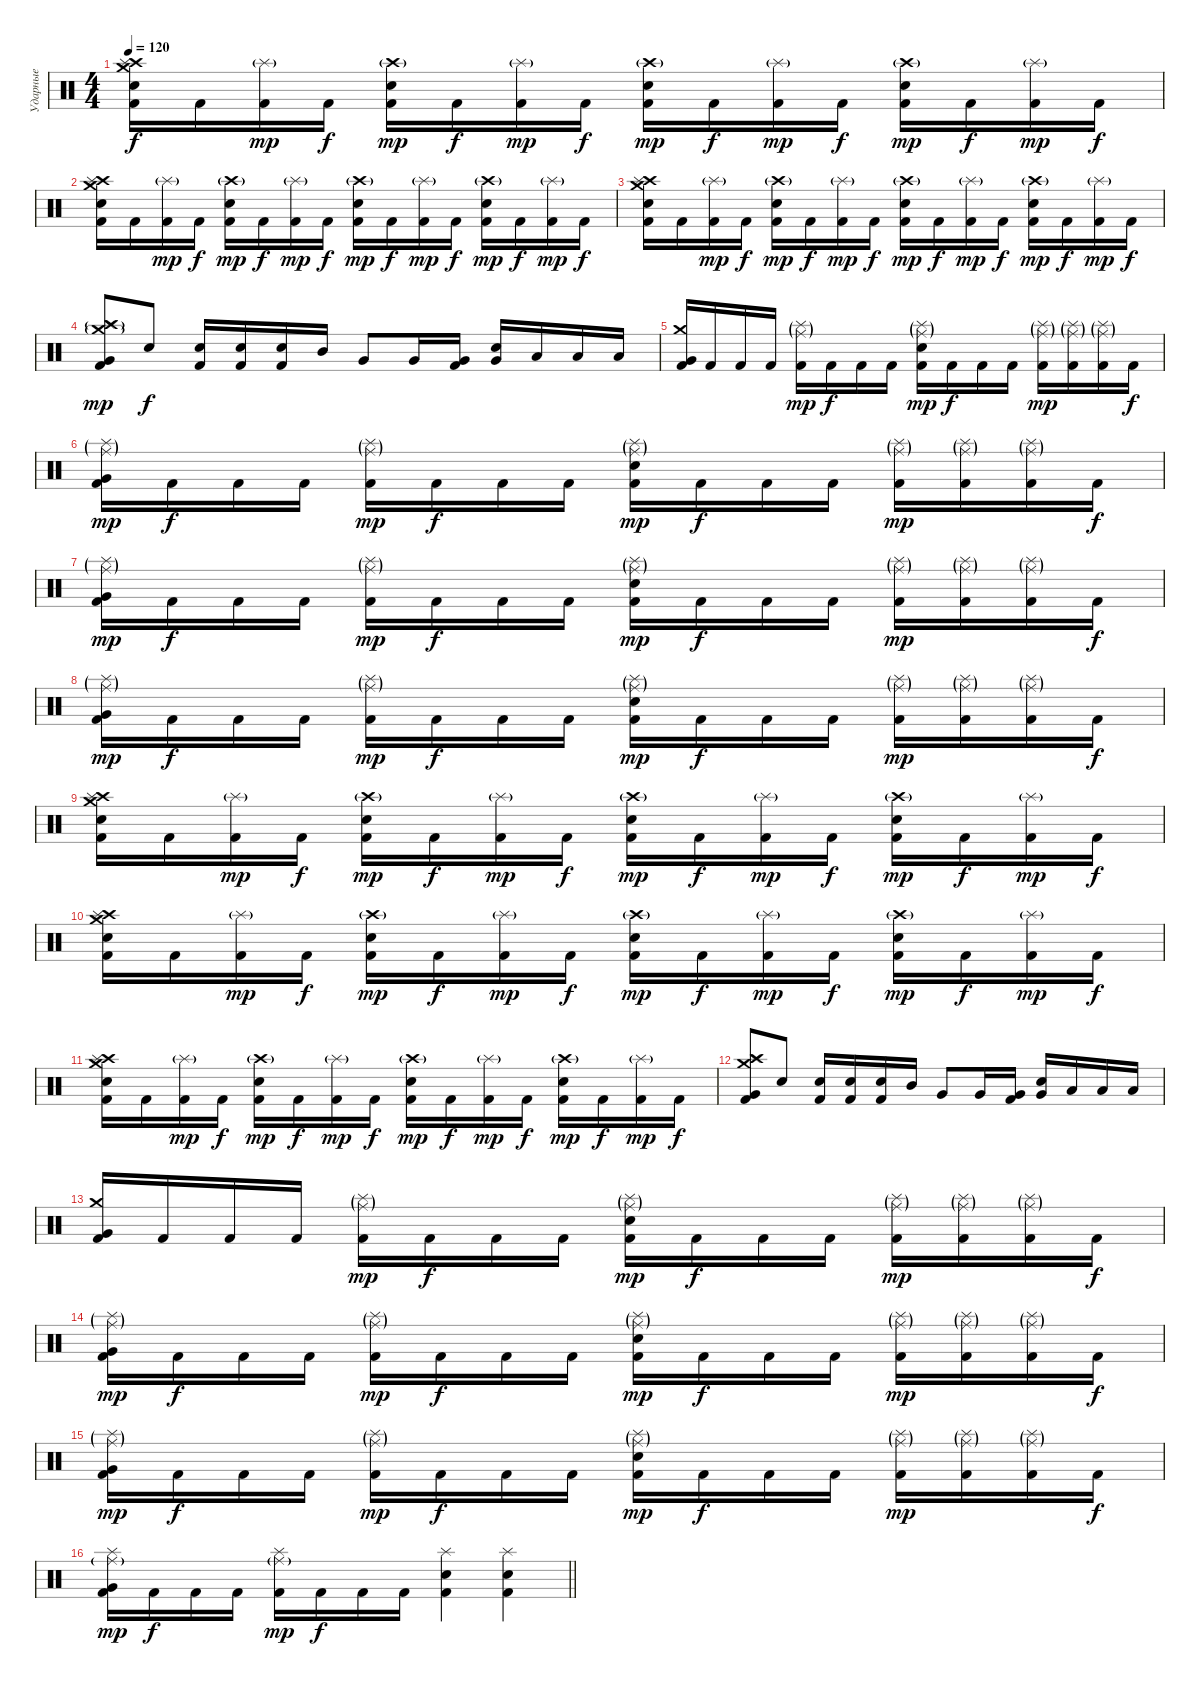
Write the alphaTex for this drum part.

\track ("Ударные" "Ударные") {instrument percussion bank 2}
\staff {score}
\articulation defaults
\ts (4 4)
\tempo 120
\clef neutral
\ks c
("Kick (hit) 2" "Snare (hit) 2" "Crash medium (hit)" "Crash high (hit)" "Splash (hit)").16{dy f} "Kick (hit) 2".16 ("Kick (hit) 2" "Splash (hit)"{g}).16{dy mp} "Kick (hit) 2".16{dy f} ("Kick (hit) 2" "Snare (hit) 2" "Crash high (hit)"{g}).16{dy mp} "Kick (hit) 2".16{dy f} ("Kick (hit) 2" "Splash (hit)"{g}).16{dy mp} "Kick (hit) 2".16{dy f} ("Kick (hit) 2" "Snare (hit) 2" "Crash high (hit)"{g}).16{dy mp} "Kick (hit) 2".16{dy f} ("Kick (hit) 2" "Splash (hit)"{g}).16{dy mp} "Kick (hit) 2".16{dy f} ("Kick (hit) 2" "Snare (hit) 2" "Crash high (hit)"{g}).16{dy mp} "Kick (hit) 2".16{dy f} ("Kick (hit) 2" "Splash (hit)"{g}).16{dy mp} "Kick (hit) 2".16{dy f} |
("Kick (hit) 2" "Snare (hit) 2" "Crash medium (hit)" "Crash high (hit)" "Splash (hit)").16 "Kick (hit) 2".16 ("Kick (hit) 2" "Splash (hit)"{g}).16{dy mp} "Kick (hit) 2".16{dy f} ("Kick (hit) 2" "Snare (hit) 2" "Crash high (hit)"{g}).16{dy mp} "Kick (hit) 2".16{dy f} ("Kick (hit) 2" "Splash (hit)"{g}).16{dy mp} "Kick (hit) 2".16{dy f} ("Kick (hit) 2" "Snare (hit) 2" "Crash high (hit)"{g}).16{dy mp} "Kick (hit) 2".16{dy f} ("Kick (hit) 2" "Splash (hit)"{g}).16{dy mp} "Kick (hit) 2".16{dy f} ("Kick (hit) 2" "Snare (hit) 2" "Crash high (hit)"{g}).16{dy mp} "Kick (hit) 2".16{dy f} ("Kick (hit) 2" "Splash (hit)"{g}).16{dy mp} "Kick (hit) 2".16{dy f} |
("Kick (hit) 2" "Snare (hit) 2" "Crash medium (hit)" "Crash high (hit)" "Splash (hit)").16 "Kick (hit) 2".16 ("Kick (hit) 2" "Splash (hit)"{g}).16{dy mp} "Kick (hit) 2".16{dy f} ("Kick (hit) 2" "Snare (hit) 2" "Crash high (hit)"{g}).16{dy mp} "Kick (hit) 2".16{dy f} ("Kick (hit) 2" "Splash (hit)"{g}).16{dy mp} "Kick (hit) 2".16{dy f} ("Kick (hit) 2" "Snare (hit) 2" "Crash high (hit)"{g}).16{dy mp} "Kick (hit) 2".16{dy f} ("Kick (hit) 2" "Splash (hit)"{g}).16{dy mp} "Kick (hit) 2".16{dy f} ("Kick (hit) 2" "Snare (hit) 2" "Crash high (hit)"{g}).16{dy mp} "Kick (hit) 2".16{dy f} ("Kick (hit) 2" "Splash (hit)"{g}).16{dy mp} "Kick (hit) 2".16{dy f} |
("Kick (hit) 2" "Very Low Tom (hit)" "Crash high (hit)"{g} "Crash medium (hit)"{g} "Splash (hit)").8{dy mp} "Snare (hit) 2".8{dy f} ("Kick (hit) 2" "Snare (hit) 2").16 ("Kick (hit) 2" "Snare (hit) 2").16 ("Kick (hit) 2" "Snare (hit) 2").16 "Mid Tom (hit)".16 "Very Low Tom (hit)".8 "Very Low Tom (hit)".16 ("Kick (hit) 2" "Very Low Tom (hit)").16 ("Snare (hit)" "Very Low Tom (hit)").16 "Low Tom (hit)".16 "Low Tom (hit)".16 "Low Tom (hit)".16 |
("Kick (hit) 2" "Very Low Tom (hit)" "Crash medium (hit)").16 "Kick (hit) 2".16 "Kick (hit) 2".16 "Kick (hit) 2".16 ("Kick (hit) 2" "Ride (middle)"{g} "Splash (hit)"{g}).16{dy mp} "Kick (hit) 2".16{dy f} "Kick (hit) 2".16 "Kick (hit) 2".16 ("Kick (hit) 2" "Snare (hit) 2" "Ride (middle)"{g} "Splash (hit)"{g}).16{dy mp} "Kick (hit) 2".16{dy f} "Kick (hit) 2".16 "Kick (hit) 2".16 ("Kick (hit) 2" "Ride (middle)"{g} "Splash (hit)"{g}).16{dy mp} ("Kick (hit) 2" "Ride (middle)"{g} "Splash (hit)"{g}).16 ("Kick (hit) 2" "Ride (middle)"{g} "Splash (hit)"{g}).16 "Kick (hit) 2".16{dy f} |
("Kick (hit) 2" "Very Low Tom (hit)" "Ride (middle)"{g} "Splash (hit)"{g}).16{dy mp} "Kick (hit) 2".16{dy f} "Kick (hit) 2".16 "Kick (hit) 2".16 ("Kick (hit) 2" "Ride (middle)"{g} "Splash (hit)"{g}).16{dy mp} "Kick (hit) 2".16{dy f} "Kick (hit) 2".16 "Kick (hit) 2".16 ("Kick (hit) 2" "Snare (hit) 2" "Ride (middle)"{g} "Splash (hit)"{g}).16{dy mp} "Kick (hit) 2".16{dy f} "Kick (hit) 2".16 "Kick (hit) 2".16 ("Kick (hit) 2" "Ride (middle)"{g} "Splash (hit)"{g}).16{dy mp} ("Kick (hit) 2" "Ride (middle)"{g} "Splash (hit)"{g}).16 ("Kick (hit) 2" "Ride (middle)"{g} "Splash (hit)"{g}).16 "Kick (hit) 2".16{dy f} |
("Kick (hit) 2" "Very Low Tom (hit)" "Ride (middle)"{g} "Splash (hit)"{g}).16{dy mp} "Kick (hit) 2".16{dy f} "Kick (hit) 2".16 "Kick (hit) 2".16 ("Kick (hit) 2" "Ride (middle)"{g} "Splash (hit)"{g}).16{dy mp} "Kick (hit) 2".16{dy f} "Kick (hit) 2".16 "Kick (hit) 2".16 ("Kick (hit) 2" "Snare (hit) 2" "Ride (middle)"{g} "Splash (hit)"{g}).16{dy mp} "Kick (hit) 2".16{dy f} "Kick (hit) 2".16 "Kick (hit) 2".16 ("Kick (hit) 2" "Ride (middle)"{g} "Splash (hit)"{g}).16{dy mp} ("Kick (hit) 2" "Ride (middle)"{g} "Splash (hit)"{g}).16 ("Kick (hit) 2" "Ride (middle)"{g} "Splash (hit)"{g}).16 "Kick (hit) 2".16{dy f} |
("Kick (hit) 2" "Very Low Tom (hit)" "Ride (middle)"{g} "Splash (hit)"{g}).16{dy mp} "Kick (hit) 2".16{dy f} "Kick (hit) 2".16 "Kick (hit) 2".16 ("Kick (hit) 2" "Ride (middle)"{g} "Splash (hit)"{g}).16{dy mp} "Kick (hit) 2".16{dy f} "Kick (hit) 2".16 "Kick (hit) 2".16 ("Kick (hit) 2" "Snare (hit) 2" "Ride (middle)"{g} "Splash (hit)"{g}).16{dy mp} "Kick (hit) 2".16{dy f} "Kick (hit) 2".16 "Kick (hit) 2".16 ("Kick (hit) 2" "Ride (middle)"{g} "Splash (hit)"{g}).16{dy mp} ("Kick (hit) 2" "Ride (middle)"{g} "Splash (hit)"{g}).16 ("Kick (hit) 2" "Ride (middle)"{g} "Splash (hit)"{g}).16 "Kick (hit) 2".16{dy f} |
("Kick (hit) 2" "Snare (hit) 2" "Crash medium (hit)" "Crash high (hit)" "Splash (hit)").16 "Kick (hit) 2".16 ("Kick (hit) 2" "Splash (hit)"{g}).16{dy mp} "Kick (hit) 2".16{dy f} ("Kick (hit) 2" "Snare (hit) 2" "Crash high (hit)"{g}).16{dy mp} "Kick (hit) 2".16{dy f} ("Kick (hit) 2" "Splash (hit)"{g}).16{dy mp} "Kick (hit) 2".16{dy f} ("Kick (hit) 2" "Snare (hit) 2" "Crash high (hit)"{g}).16{dy mp} "Kick (hit) 2".16{dy f} ("Kick (hit) 2" "Splash (hit)"{g}).16{dy mp} "Kick (hit) 2".16{dy f} ("Kick (hit) 2" "Snare (hit) 2" "Crash high (hit)"{g}).16{dy mp} "Kick (hit) 2".16{dy f} ("Kick (hit) 2" "Splash (hit)"{g}).16{dy mp} "Kick (hit) 2".16{dy f} |
("Kick (hit) 2" "Snare (hit) 2" "Crash medium (hit)" "Crash high (hit)" "Splash (hit)").16 "Kick (hit) 2".16 ("Kick (hit) 2" "Splash (hit)"{g}).16{dy mp} "Kick (hit) 2".16{dy f} ("Kick (hit) 2" "Snare (hit) 2" "Crash high (hit)"{g}).16{dy mp} "Kick (hit) 2".16{dy f} ("Kick (hit) 2" "Splash (hit)"{g}).16{dy mp} "Kick (hit) 2".16{dy f} ("Kick (hit) 2" "Snare (hit) 2" "Crash high (hit)"{g}).16{dy mp} "Kick (hit) 2".16{dy f} ("Kick (hit) 2" "Splash (hit)"{g}).16{dy mp} "Kick (hit) 2".16{dy f} ("Kick (hit) 2" "Snare (hit) 2" "Crash high (hit)"{g}).16{dy mp} "Kick (hit) 2".16{dy f} ("Kick (hit) 2" "Splash (hit)"{g}).16{dy mp} "Kick (hit) 2".16{dy f} |
("Kick (hit) 2" "Snare (hit) 2" "Crash medium (hit)" "Crash high (hit)" "Splash (hit)").16 "Kick (hit) 2".16 ("Kick (hit) 2" "Splash (hit)"{g}).16{dy mp} "Kick (hit) 2".16{dy f} ("Kick (hit) 2" "Snare (hit) 2" "Crash high (hit)"{g}).16{dy mp} "Kick (hit) 2".16{dy f} ("Kick (hit) 2" "Splash (hit)"{g}).16{dy mp} "Kick (hit) 2".16{dy f} ("Kick (hit) 2" "Snare (hit) 2" "Crash high (hit)"{g}).16{dy mp} "Kick (hit) 2".16{dy f} ("Kick (hit) 2" "Splash (hit)"{g}).16{dy mp} "Kick (hit) 2".16{dy f} ("Kick (hit) 2" "Snare (hit) 2" "Crash high (hit)"{g}).16{dy mp} "Kick (hit) 2".16{dy f} ("Kick (hit) 2" "Splash (hit)"{g}).16{dy mp} "Kick (hit) 2".16{dy f} |
("Kick (hit) 2" "Very Low Tom (hit)" "Crash high (hit)" "Crash medium (hit)" "Splash (hit)").8 "Snare (hit) 2".8 ("Kick (hit) 2" "Snare (hit) 2").16 ("Kick (hit) 2" "Snare (hit) 2").16 ("Kick (hit) 2" "Snare (hit) 2").16 "Mid Tom (hit)".16 "Very Low Tom (hit)".8 "Very Low Tom (hit)".16 ("Kick (hit) 2" "Very Low Tom (hit)").16 ("Snare (hit)" "Very Low Tom (hit)").16 "Low Tom (hit)".16 "Low Tom (hit)".16 "Low Tom (hit)".16 |
("Kick (hit) 2" "Very Low Tom (hit)" "Crash medium (hit)").16 "Kick (hit) 2".16 "Kick (hit) 2".16 "Kick (hit) 2".16 ("Kick (hit) 2" "Ride (middle)"{g} "Splash (hit)"{g}).16{dy mp} "Kick (hit) 2".16{dy f} "Kick (hit) 2".16 "Kick (hit) 2".16 ("Kick (hit) 2" "Snare (hit) 2" "Ride (middle)"{g} "Splash (hit)"{g}).16{dy mp} "Kick (hit) 2".16{dy f} "Kick (hit) 2".16 "Kick (hit) 2".16 ("Kick (hit) 2" "Ride (middle)"{g} "Splash (hit)"{g}).16{dy mp} ("Kick (hit) 2" "Ride (middle)"{g} "Splash (hit)"{g}).16 ("Kick (hit) 2" "Ride (middle)"{g} "Splash (hit)"{g}).16 "Kick (hit) 2".16{dy f} |
("Kick (hit) 2" "Very Low Tom (hit)" "Ride (middle)"{g} "Splash (hit)"{g}).16{dy mp} "Kick (hit) 2".16{dy f} "Kick (hit) 2".16 "Kick (hit) 2".16 ("Kick (hit) 2" "Ride (middle)"{g} "Splash (hit)"{g}).16{dy mp} "Kick (hit) 2".16{dy f} "Kick (hit) 2".16 "Kick (hit) 2".16 ("Kick (hit) 2" "Snare (hit) 2" "Ride (middle)"{g} "Splash (hit)"{g}).16{dy mp} "Kick (hit) 2".16{dy f} "Kick (hit) 2".16 "Kick (hit) 2".16 ("Kick (hit) 2" "Ride (middle)"{g} "Splash (hit)"{g}).16{dy mp} ("Kick (hit) 2" "Ride (middle)"{g} "Splash (hit)"{g}).16 ("Kick (hit) 2" "Ride (middle)"{g} "Splash (hit)"{g}).16 "Kick (hit) 2".16{dy f} |
("Kick (hit) 2" "Very Low Tom (hit)" "Ride (middle)"{g} "Splash (hit)"{g}).16{dy mp} "Kick (hit) 2".16{dy f} "Kick (hit) 2".16 "Kick (hit) 2".16 ("Kick (hit) 2" "Ride (middle)"{g} "Splash (hit)"{g}).16{dy mp} "Kick (hit) 2".16{dy f} "Kick (hit) 2".16 "Kick (hit) 2".16 ("Kick (hit) 2" "Snare (hit) 2" "Ride (middle)"{g} "Splash (hit)"{g}).16{dy mp} "Kick (hit) 2".16{dy f} "Kick (hit) 2".16 "Kick (hit) 2".16 ("Kick (hit) 2" "Ride (middle)"{g} "Splash (hit)"{g}).16{dy mp} ("Kick (hit) 2" "Ride (middle)"{g} "Splash (hit)"{g}).16 ("Kick (hit) 2" "Ride (middle)"{g} "Splash (hit)"{g}).16 "Kick (hit) 2".16{dy f} |
\barLineRight lightlight
("Kick (hit) 2" "Very Low Tom (hit)" "Ride (middle)"{g} "Splash (hit)").16{dy mp} "Kick (hit) 2".16{dy f} "Kick (hit) 2".16 "Kick (hit) 2".16 ("Kick (hit) 2" "Ride (middle)"{g} "Splash (hit)").16{dy mp} "Kick (hit) 2".16{dy f} "Kick (hit) 2".16 "Kick (hit) 2".16 ("Kick (hit) 2" "Snare (hit) 2" "Splash (hit)").4 ("Kick (hit) 2" "Snare (hit) 2" "Splash (hit)").4
